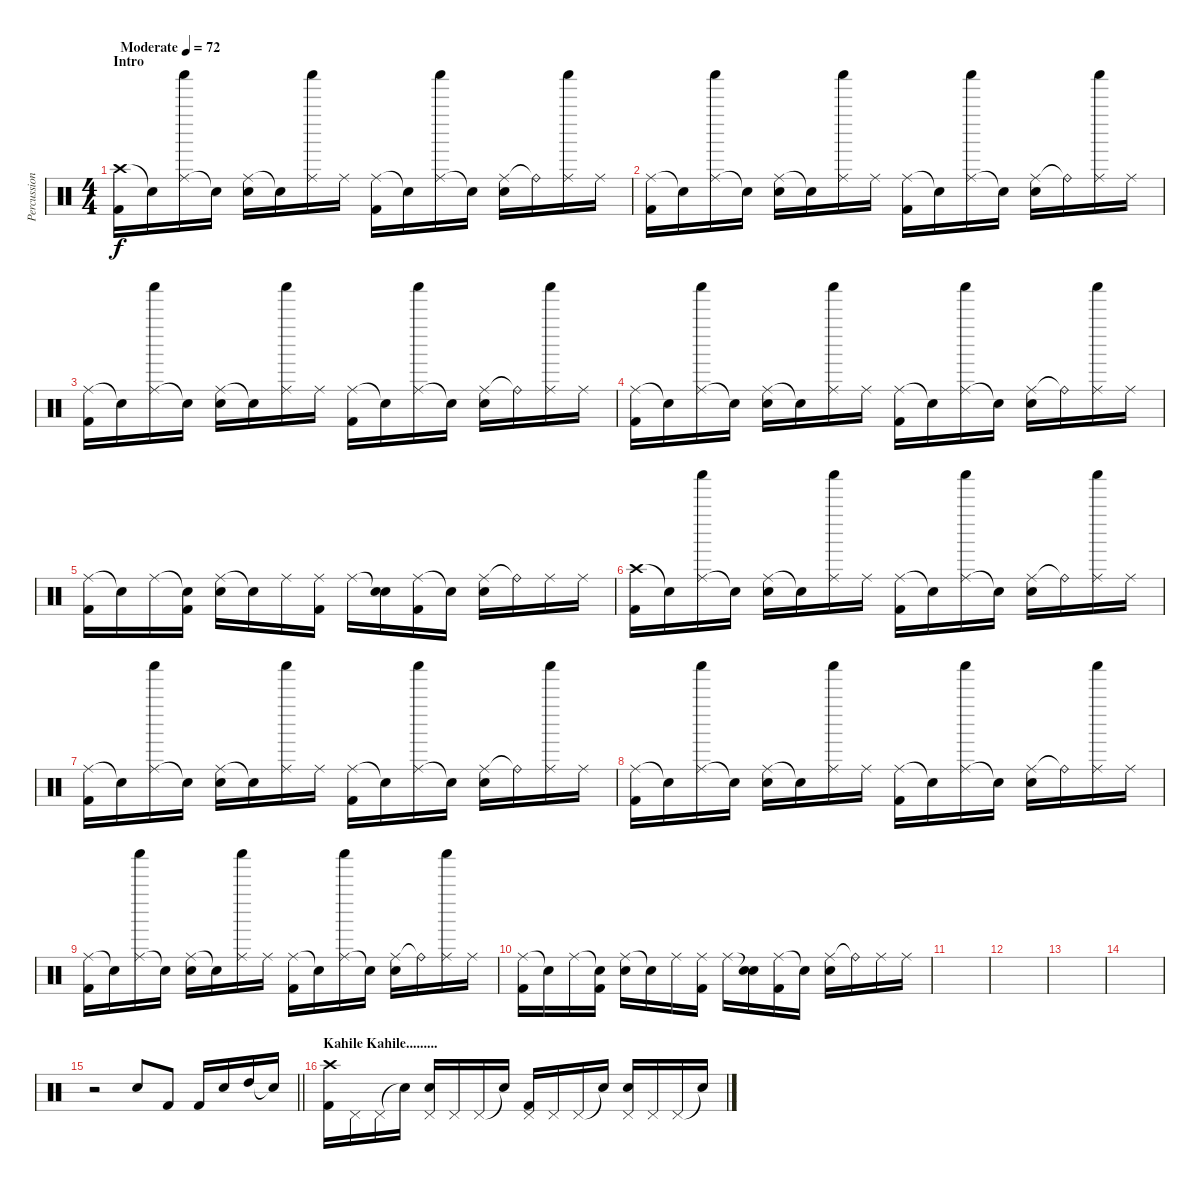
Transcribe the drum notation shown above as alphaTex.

\track ("Percussion" "Percussion") {instrument percussion}
\staff {score}
\articulation defaults
\ts (4 4)
\section ("" "Intro")
\tempo (72 "Moderate")
\clef neutral
\ks c
("Crash high (hit)" "Kick (hit) 2").16{dy f} "Snare (hit)"{t}.16 ("Ride (middle)" "Shaker (hit)").16 "Snare (hit)"{t}.16 ("Ride (middle)" "Electric Snare (hit)").16 "Snare (hit)"{t}.16 ("Ride (middle)" "Shaker (hit)").16 "Ride (middle)".16 ("Ride (middle)" "Kick (hit) 2").16 "Snare (hit)"{t}.16 ("Ride (middle)" "Shaker (hit)").16 "Snare (hit)"{t}.16 ("Ride (middle)" "Electric Snare (hit)").16 "Ride (bell)"{t}.16 ("Ride (middle)" "Shaker (hit)").16 "Ride (middle)".16 |
("Ride (middle)" "Kick (hit) 2").16 "Snare (hit)"{t}.16 ("Ride (middle)" "Shaker (hit)").16 "Snare (hit)"{t}.16 ("Ride (middle)" "Electric Snare (hit)").16 "Snare (hit)"{t}.16 ("Ride (middle)" "Shaker (hit)").16 "Ride (middle)".16 ("Ride (middle)" "Kick (hit) 2").16 "Snare (hit)"{t}.16 ("Ride (middle)" "Shaker (hit)").16 "Snare (hit)"{t}.16 ("Ride (middle)" "Electric Snare (hit)").16 "Ride (bell)"{t}.16 ("Ride (middle)" "Shaker (hit)").16 "Ride (middle)".16 |
("Ride (middle)" "Kick (hit) 2").16 "Snare (hit)"{t}.16 ("Ride (middle)" "Shaker (hit)").16 "Snare (hit)"{t}.16 ("Ride (middle)" "Electric Snare (hit)").16 "Snare (hit)"{t}.16 ("Ride (middle)" "Shaker (hit)").16 "Ride (middle)".16 ("Ride (middle)" "Kick (hit) 2").16 "Snare (hit)"{t}.16 ("Ride (middle)" "Shaker (hit)").16 "Snare (hit)"{t}.16 ("Ride (middle)" "Electric Snare (hit)").16 "Ride (bell)"{t}.16 ("Ride (middle)" "Shaker (hit)").16 "Ride (middle)".16 |
("Ride (middle)" "Kick (hit) 2").16 "Snare (hit)"{t}.16 ("Ride (middle)" "Shaker (hit)").16 "Snare (hit)"{t}.16 ("Ride (middle)" "Electric Snare (hit)").16 "Snare (hit)"{t}.16 ("Ride (middle)" "Shaker (hit)").16 "Ride (middle)".16 ("Ride (middle)" "Kick (hit) 2").16 "Snare (hit)"{t}.16 ("Ride (middle)" "Shaker (hit)").16 "Snare (hit)"{t}.16 ("Ride (middle)" "Electric Snare (hit)").16 "Ride (bell)"{t}.16 ("Ride (middle)" "Shaker (hit)").16 "Ride (middle)".16 |
("Ride (middle)" "Kick (hit) 2").16 "Snare (hit)"{t}.16 "Ride (middle)".16 ("Snare (hit)"{t} "Kick (hit) 2").16 ("Ride (middle)" "Electric Snare (hit)").16 "Snare (hit)"{t}.16 "Ride (middle)".16 ("Ride (middle)" "Kick (hit) 2").16 "Ride (middle)".16 ("Snare (hit)"{t} "Electric Snare (hit)").16 ("Ride (middle)" "Kick (hit) 2").16 "Snare (hit)"{t}.16 ("Ride (middle)" "Electric Snare (hit)").16 "Ride (bell)"{t}.16 "Ride (middle)".16 "Ride (middle)".16 |
("Crash high (hit)" "Kick (hit) 2").16 "Snare (hit)"{t}.16 ("Ride (middle)" "Shaker (hit)").16 "Snare (hit)"{t}.16 ("Ride (middle)" "Electric Snare (hit)").16 "Snare (hit)"{t}.16 ("Ride (middle)" "Shaker (hit)").16 "Ride (middle)".16 ("Ride (middle)" "Kick (hit) 2").16 "Snare (hit)"{t}.16 ("Ride (middle)" "Shaker (hit)").16 "Snare (hit)"{t}.16 ("Ride (middle)" "Electric Snare (hit)").16 "Ride (bell)"{t}.16 ("Ride (middle)" "Shaker (hit)").16 "Ride (middle)".16 |
("Ride (middle)" "Kick (hit) 2").16 "Snare (hit)"{t}.16 ("Ride (middle)" "Shaker (hit)").16 "Snare (hit)"{t}.16 ("Ride (middle)" "Electric Snare (hit)").16 "Snare (hit)"{t}.16 ("Ride (middle)" "Shaker (hit)").16 "Ride (middle)".16 ("Ride (middle)" "Kick (hit) 2").16 "Snare (hit)"{t}.16 ("Ride (middle)" "Shaker (hit)").16 "Snare (hit)"{t}.16 ("Ride (middle)" "Electric Snare (hit)").16 "Ride (bell)"{t}.16 ("Ride (middle)" "Shaker (hit)").16 "Ride (middle)".16 |
("Ride (middle)" "Kick (hit) 2").16 "Snare (hit)"{t}.16 ("Ride (middle)" "Shaker (hit)").16 "Snare (hit)"{t}.16 ("Ride (middle)" "Electric Snare (hit)").16 "Snare (hit)"{t}.16 ("Ride (middle)" "Shaker (hit)").16 "Ride (middle)".16 ("Ride (middle)" "Kick (hit) 2").16 "Snare (hit)"{t}.16 ("Ride (middle)" "Shaker (hit)").16 "Snare (hit)"{t}.16 ("Ride (middle)" "Electric Snare (hit)").16 "Ride (bell)"{t}.16 ("Ride (middle)" "Shaker (hit)").16 "Ride (middle)".16 |
("Ride (middle)" "Kick (hit) 2").16 "Snare (hit)"{t}.16 ("Ride (middle)" "Shaker (hit)").16 "Snare (hit)"{t}.16 ("Ride (middle)" "Electric Snare (hit)").16 "Snare (hit)"{t}.16 ("Ride (middle)" "Shaker (hit)").16 "Ride (middle)".16 ("Ride (middle)" "Kick (hit) 2").16 "Snare (hit)"{t}.16 ("Ride (middle)" "Shaker (hit)").16 "Snare (hit)"{t}.16 ("Ride (middle)" "Electric Snare (hit)").16 "Ride (bell)"{t}.16 ("Ride (middle)" "Shaker (hit)").16 "Ride (middle)".16 |
("Ride (middle)" "Kick (hit) 2").16 "Snare (hit)"{t}.16 "Ride (middle)".16 ("Snare (hit)"{t} "Kick (hit) 2").16 ("Ride (middle)" "Electric Snare (hit)").16 "Snare (hit)"{t}.16 "Ride (middle)".16 ("Ride (middle)" "Kick (hit) 2").16 "Ride (middle)".16 ("Snare (hit)"{t} "Electric Snare (hit)").16 ("Ride (middle)" "Kick (hit) 2").16 "Snare (hit)"{t}.16 ("Ride (middle)" "Electric Snare (hit)").16 "Ride (bell)"{t}.16 "Ride (middle)".16 "Ride (middle)".16 |
|
|
|
|
\barLineRight lightlight
r.2 "Electric Snare (hit)".8 "Kick (hit) 2".8 "Kick (hit) 2".16 "Electric Snare (hit)".16 "High Tom (hit)".16 "Electric Snare (hit)"{t}.16 |
\section ("" "Kahile Kahile.........")
("Crash high (hit)" "Kick (hit) 2").16 "Pedal Hi-Hat (hit)".16 "Pedal Hi-Hat (hit)".16 "Snare (hit)"{t}.16 ("Pedal Hi-Hat (hit)" "Electric Snare (hit)").16 "Pedal Hi-Hat (hit)".16 "Pedal Hi-Hat (hit)".16 "Snare (hit)"{t}.16 ("Pedal Hi-Hat (hit)" "Kick (hit) 2").16 "Pedal Hi-Hat (hit)".16 "Pedal Hi-Hat (hit)".16 "Snare (hit)"{t}.16 ("Pedal Hi-Hat (hit)" "Electric Snare (hit)").16 "Pedal Hi-Hat (hit)".16 "Pedal Hi-Hat (hit)".16 "Snare (hit)"{t}.16
